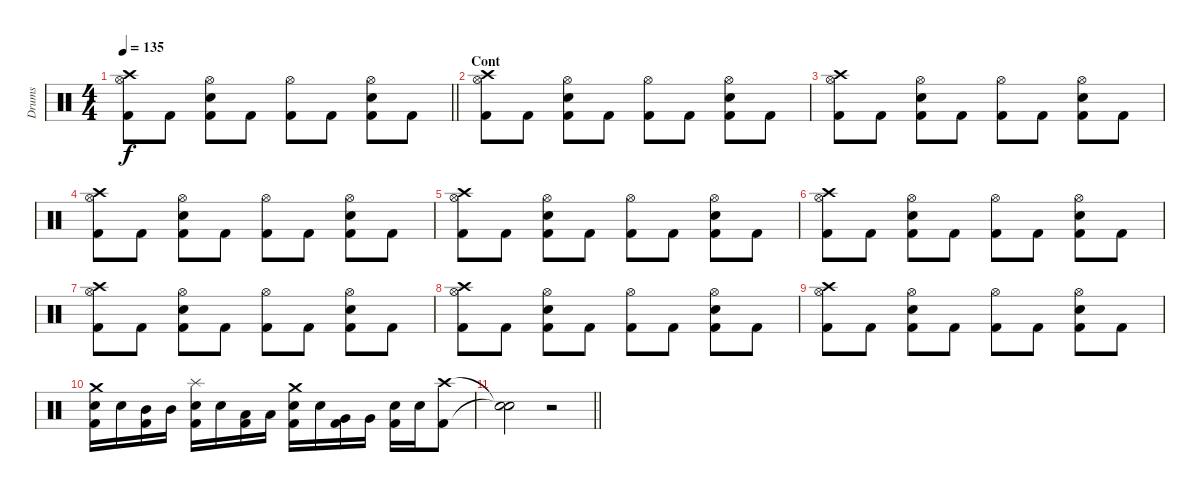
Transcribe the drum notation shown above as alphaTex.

\track ("Drums" "Drums") {instrument percussion}
\staff {score}
\articulation defaults
\ts (4 4)
\tempo 135
\clef neutral
\barLineRight lightlight
\ks c
("Crash high (hit)" "Hi-Hat (open)" "Kick (hit) 2").8{dy f} "Kick (hit) 2".8 ("Hi-Hat (open)" "Snare (hit) 2" "Kick (hit) 2").8 "Kick (hit) 2".8 ("Hi-Hat (open)" "Kick (hit) 2").8 "Kick (hit) 2".8 ("Hi-Hat (open)" "Snare (hit) 2" "Kick (hit) 2").8 "Kick (hit) 2".8 |
\section ("" "Cont")
("Crash high (hit)" "Hi-Hat (open)" "Kick (hit) 2").8 "Kick (hit) 2".8 ("Hi-Hat (open)" "Snare (hit) 2" "Kick (hit) 2").8 "Kick (hit) 2".8 ("Hi-Hat (open)" "Kick (hit) 2").8 "Kick (hit) 2".8 ("Hi-Hat (open)" "Snare (hit) 2" "Kick (hit) 2").8 "Kick (hit) 2".8 |
("Crash high (hit)" "Hi-Hat (open)" "Kick (hit) 2").8 "Kick (hit) 2".8 ("Hi-Hat (open)" "Snare (hit) 2" "Kick (hit) 2").8 "Kick (hit) 2".8 ("Hi-Hat (open)" "Kick (hit) 2").8 "Kick (hit) 2".8 ("Hi-Hat (open)" "Snare (hit) 2" "Kick (hit) 2").8 "Kick (hit) 2".8 |
("Crash high (hit)" "Hi-Hat (open)" "Kick (hit) 2").8 "Kick (hit) 2".8 ("Hi-Hat (open)" "Snare (hit) 2" "Kick (hit) 2").8 "Kick (hit) 2".8 ("Hi-Hat (open)" "Kick (hit) 2").8 "Kick (hit) 2".8 ("Hi-Hat (open)" "Snare (hit) 2" "Kick (hit) 2").8 "Kick (hit) 2".8 |
("Crash high (hit)" "Hi-Hat (open)" "Kick (hit) 2").8 "Kick (hit) 2".8 ("Hi-Hat (open)" "Snare (hit) 2" "Kick (hit) 2").8 "Kick (hit) 2".8 ("Hi-Hat (open)" "Kick (hit) 2").8 "Kick (hit) 2".8 ("Hi-Hat (open)" "Snare (hit) 2" "Kick (hit) 2").8 "Kick (hit) 2".8 |
("Crash high (hit)" "Hi-Hat (open)" "Kick (hit) 2").8 "Kick (hit) 2".8 ("Hi-Hat (open)" "Snare (hit) 2" "Kick (hit) 2").8 "Kick (hit) 2".8 ("Hi-Hat (open)" "Kick (hit) 2").8 "Kick (hit) 2".8 ("Hi-Hat (open)" "Snare (hit) 2" "Kick (hit) 2").8 "Kick (hit) 2".8 |
("Crash high (hit)" "Hi-Hat (open)" "Kick (hit) 2").8 "Kick (hit) 2".8 ("Hi-Hat (open)" "Snare (hit) 2" "Kick (hit) 2").8 "Kick (hit) 2".8 ("Hi-Hat (open)" "Kick (hit) 2").8 "Kick (hit) 2".8 ("Hi-Hat (open)" "Snare (hit) 2" "Kick (hit) 2").8 "Kick (hit) 2".8 |
("Crash high (hit)" "Hi-Hat (open)" "Kick (hit) 2").8 "Kick (hit) 2".8 ("Hi-Hat (open)" "Snare (hit) 2" "Kick (hit) 2").8 "Kick (hit) 2".8 ("Hi-Hat (open)" "Kick (hit) 2").8 "Kick (hit) 2".8 ("Hi-Hat (open)" "Snare (hit) 2" "Kick (hit) 2").8 "Kick (hit) 2".8 |
("Crash high (hit)" "Hi-Hat (open)" "Kick (hit) 2").8 "Kick (hit) 2".8 ("Hi-Hat (open)" "Snare (hit) 2" "Kick (hit) 2").8 "Kick (hit) 2".8 ("Hi-Hat (open)" "Kick (hit) 2").8 "Kick (hit) 2".8 ("Hi-Hat (open)" "Snare (hit) 2" "Kick (hit) 2").8 "Kick (hit) 2".8 |
("Crash medium (hit)" "Snare (hit) 2" "Kick (hit) 2").16 "Snare (hit) 2".16 ("Mid Tom (hit)" "Kick (hit) 2").16 "Mid Tom (hit)".16 ("Splash (hit)" "Snare (hit) 2" "Kick (hit) 2").16 "Snare (hit) 2".16 ("Low Tom (hit)" "Kick (hit) 2").16 "Low Tom (hit)".16 ("Crash medium (hit)" "Snare (hit) 2" "Kick (hit) 2").16 "Snare (hit) 2".16 ("Very Low Tom (hit)" "Kick (hit) 2").16 "Very Low Tom (hit)".16 ("Snare (hit) 2" "Kick (hit) 2").16 "Snare (hit) 2".16 ("Crash high (hit)" "Kick (hit) 2").8 |
\barLineRight lightlight
("Snare (hit)"{t} "Snare (hit)"{t}).2 r.2
